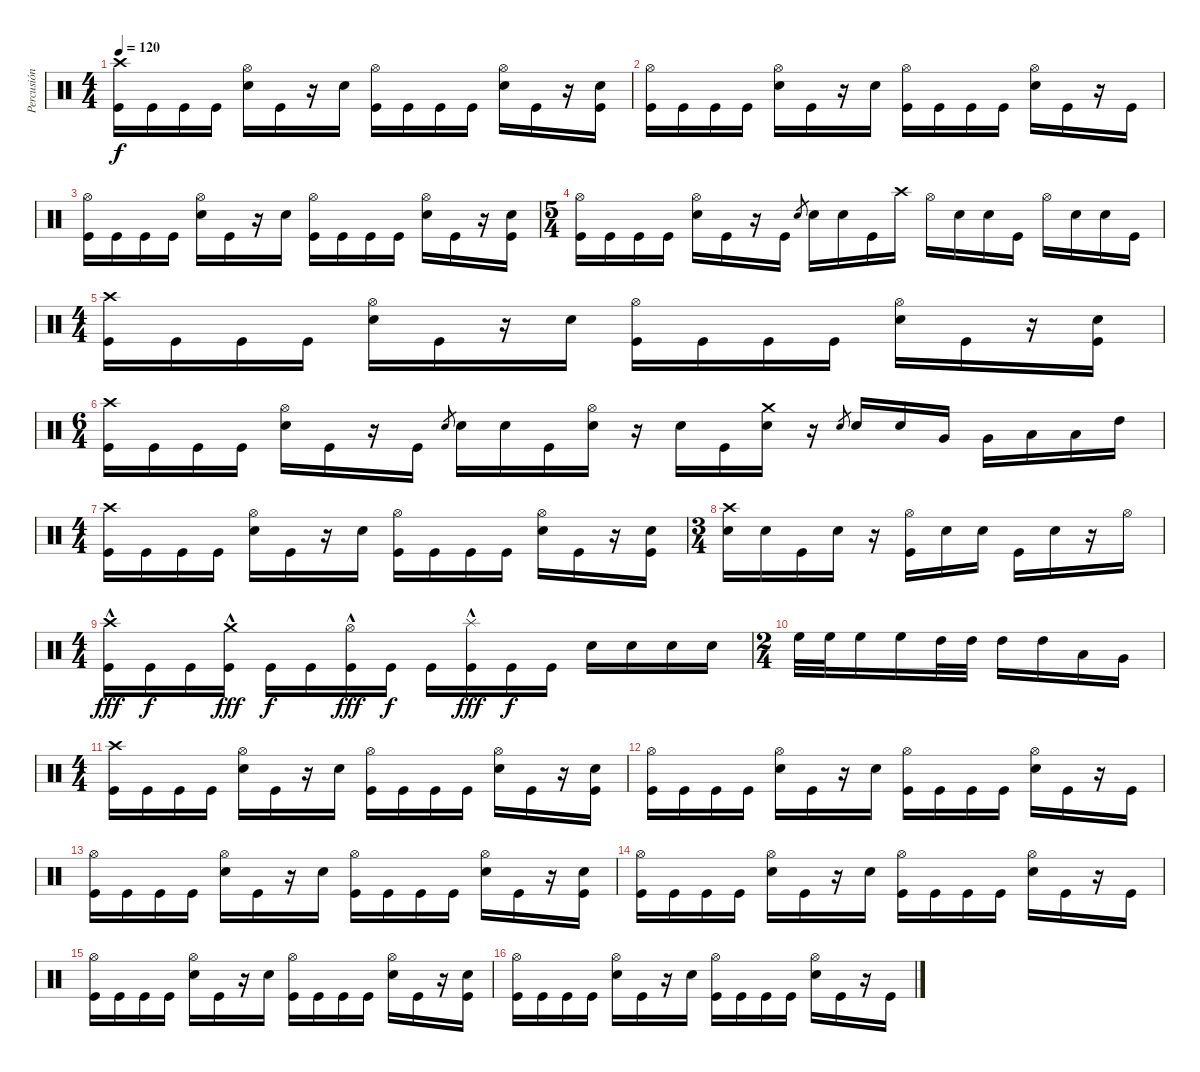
\track ("Percusión" "Percusión") {instrument percussion}
\staff {score}
\articulation defaults
\ts (4 4)
\tempo 120
\clef neutral
\ks c
("Crash high (hit)" "Kick (hit)").16{dy f} "Kick (hit)".16 "Kick (hit)".16 "Kick (hit)".16 ("Hi-Hat (open)" "Snare (hit) 2").16 "Kick (hit)".16 r.16 "Snare (hit) 2".16 ("Hi-Hat (open)" "Kick (hit)").16 "Kick (hit)".16 "Kick (hit)".16 "Kick (hit)".16 ("Hi-Hat (open)" "Snare (hit) 2").16 "Kick (hit)".16 r.16 ("Snare (hit) 2" "Kick (hit)").16 |
("Hi-Hat (open)" "Kick (hit)").16 "Kick (hit)".16 "Kick (hit)".16 "Kick (hit)".16 ("Hi-Hat (open)" "Snare (hit) 2").16 "Kick (hit)".16 r.16 "Snare (hit) 2".16 ("Hi-Hat (open)" "Kick (hit)").16 "Kick (hit)".16 "Kick (hit)".16 "Kick (hit)".16 ("Hi-Hat (open)" "Snare (hit) 2").16 "Kick (hit)".16 r.16 "Kick (hit)".16 |
("Hi-Hat (open)" "Kick (hit)").16 "Kick (hit)".16 "Kick (hit)".16 "Kick (hit)".16 ("Hi-Hat (open)" "Snare (hit) 2").16 "Kick (hit)".16 r.16 "Snare (hit) 2".16 ("Hi-Hat (open)" "Kick (hit)").16 "Kick (hit)".16 "Kick (hit)".16 "Kick (hit)".16 ("Hi-Hat (open)" "Snare (hit) 2").16 "Kick (hit)".16 r.16 ("Snare (hit) 2" "Kick (hit)").16 |
\ts (5 4)
("Hi-Hat (open)" "Kick (hit)").16 "Kick (hit)".16 "Kick (hit)".16 "Kick (hit)".16 ("Hi-Hat (open)" "Snare (hit) 2").16 "Kick (hit)".16 r.16 "Kick (hit)".16 "Snare (hit) 2".8{gr} "Snare (hit) 2".16 "Snare (hit) 2".16 "Kick (hit)".16 "Crash high (hit)".16 "Hi-Hat (open)".16 "Snare (hit) 2".16 "Snare (hit) 2".16 "Kick (hit)".16 "Hi-Hat (open)".16 "Snare (hit) 2".16 "Snare (hit) 2".16 "Kick (hit)".16 |
\ts (4 4)
("Crash high (hit)" "Kick (hit)").16 "Kick (hit)".16 "Kick (hit)".16 "Kick (hit)".16 ("Hi-Hat (open)" "Snare (hit) 2").16 "Kick (hit)".16 r.16 "Snare (hit) 2".16 ("Hi-Hat (open)" "Kick (hit)").16 "Kick (hit)".16 "Kick (hit)".16 "Kick (hit)".16 ("Hi-Hat (open)" "Snare (hit) 2").16 "Kick (hit)".16 r.16 ("Snare (hit) 2" "Kick (hit)").16 |
\ts (6 4)
("Crash high (hit)" "Kick (hit)").16 "Kick (hit)".16 "Kick (hit)".16 "Kick (hit)".16 ("Hi-Hat (open)" "Snare (hit) 2").16 "Kick (hit)".16 r.16 "Kick (hit)".16 "Snare (hit) 2".8{gr} "Snare (hit) 2".16 "Snare (hit) 2".16 "Kick (hit)".16 ("Hi-Hat (open)" "Snare (hit) 2").16 r.16 "Snare (hit) 2".16 "Kick (hit)".16 ("Crash medium (hit)" "Snare (hit) 2").16 r.16 "Snare (hit) 2".8{gr} "Snare (hit) 2".16 "Snare (hit) 2".16 "Very Low Tom (hit)".16 "Very Low Tom (hit)".16 "Low Tom (hit)".16 "Low Tom (hit)".16 "High Tom (hit)".16 |
\ts (4 4)
("Crash high (hit)" "Kick (hit)").16 "Kick (hit)".16 "Kick (hit)".16 "Kick (hit)".16 ("Hi-Hat (open)" "Snare (hit) 2").16 "Kick (hit)".16 r.16 "Snare (hit) 2".16 ("Hi-Hat (open)" "Kick (hit)").16 "Kick (hit)".16 "Kick (hit)".16 "Kick (hit)".16 ("Hi-Hat (open)" "Snare (hit) 2").16 "Kick (hit)".16 r.16 ("Snare (hit) 2" "Kick (hit)").16 |
\ts (3 4)
("Crash high (hit)" "Snare (hit) 2").16 "Snare (hit) 2".16 "Kick (hit)".16 "Snare (hit) 2".16 r.16 ("Hi-Hat (open)" "Kick (hit)").16 "Snare (hit) 2".16 "Snare (hit) 2".16 "Kick (hit)".16 "Snare (hit) 2".16 r.16 "Hi-Hat (open)".16 |
\ts (4 4)
("Crash high (hit)"{hac} "Kick (hit)").16{dy fff} "Kick (hit)".16{dy f} "Kick (hit)".16 ("Crash medium (hit)"{hac} "Kick (hit)").16{dy fff} "Kick (hit)".16{dy f} "Kick (hit)".16 ("Hi-Hat (open)"{hac} "Kick (hit)").16{dy fff} "Kick (hit)".16{dy f} "Kick (hit)".16 ("Splash (hit)"{hac} "Kick (hit)").16{dy fff} "Kick (hit)".16{dy f} "Kick (hit)".16 "Snare (hit) 2".16 "Snare (hit) 2".16 "Snare (hit) 2".16 "Snare (hit) 2".16 |
\ts (2 4)
"High Floor Tom (hit)".32 "High Floor Tom (hit)".32 "High Floor Tom (hit)".16 "High Floor Tom (hit)".16 "High Tom (hit)".32 "High Tom (hit)".32 "High Tom (hit)".16 "High Tom (hit)".16 "Low Tom (hit)".16 "Very Low Tom (hit)".16 |
\ts (4 4)
("Crash high (hit)" "Kick (hit)").16 "Kick (hit)".16 "Kick (hit)".16 "Kick (hit)".16 ("Hi-Hat (open)" "Snare (hit) 2").16 "Kick (hit)".16 r.16 "Snare (hit) 2".16 ("Hi-Hat (open)" "Kick (hit)").16 "Kick (hit)".16 "Kick (hit)".16 "Kick (hit)".16 ("Hi-Hat (open)" "Snare (hit) 2").16 "Kick (hit)".16 r.16 ("Snare (hit) 2" "Kick (hit)").16 |
("Hi-Hat (open)" "Kick (hit)").16 "Kick (hit)".16 "Kick (hit)".16 "Kick (hit)".16 ("Hi-Hat (open)" "Snare (hit) 2").16 "Kick (hit)".16 r.16 "Snare (hit) 2".16 ("Hi-Hat (open)" "Kick (hit)").16 "Kick (hit)".16 "Kick (hit)".16 "Kick (hit)".16 ("Hi-Hat (open)" "Snare (hit) 2").16 "Kick (hit)".16 r.16 "Kick (hit)".16 |
("Hi-Hat (open)" "Kick (hit)").16 "Kick (hit)".16 "Kick (hit)".16 "Kick (hit)".16 ("Hi-Hat (open)" "Snare (hit) 2").16 "Kick (hit)".16 r.16 "Snare (hit) 2".16 ("Hi-Hat (open)" "Kick (hit)").16 "Kick (hit)".16 "Kick (hit)".16 "Kick (hit)".16 ("Hi-Hat (open)" "Snare (hit) 2").16 "Kick (hit)".16 r.16 ("Snare (hit) 2" "Kick (hit)").16 |
("Hi-Hat (open)" "Kick (hit)").16 "Kick (hit)".16 "Kick (hit)".16 "Kick (hit)".16 ("Hi-Hat (open)" "Snare (hit) 2").16 "Kick (hit)".16 r.16 "Snare (hit) 2".16 ("Hi-Hat (open)" "Kick (hit)").16 "Kick (hit)".16 "Kick (hit)".16 "Kick (hit)".16 ("Hi-Hat (open)" "Snare (hit) 2").16 "Kick (hit)".16 r.16 "Kick (hit)".16 |
("Hi-Hat (open)" "Kick (hit)").16 "Kick (hit)".16 "Kick (hit)".16 "Kick (hit)".16 ("Hi-Hat (open)" "Snare (hit) 2").16 "Kick (hit)".16 r.16 "Snare (hit) 2".16 ("Hi-Hat (open)" "Kick (hit)").16 "Kick (hit)".16 "Kick (hit)".16 "Kick (hit)".16 ("Hi-Hat (open)" "Snare (hit) 2").16 "Kick (hit)".16 r.16 ("Snare (hit) 2" "Kick (hit)").16 |
("Hi-Hat (open)" "Kick (hit)").16 "Kick (hit)".16 "Kick (hit)".16 "Kick (hit)".16 ("Hi-Hat (open)" "Snare (hit) 2").16 "Kick (hit)".16 r.16 "Snare (hit) 2".16 ("Hi-Hat (open)" "Kick (hit)").16 "Kick (hit)".16 "Kick (hit)".16 "Kick (hit)".16 ("Hi-Hat (open)" "Snare (hit) 2").16 "Kick (hit)".16 r.16 "Kick (hit)".16
